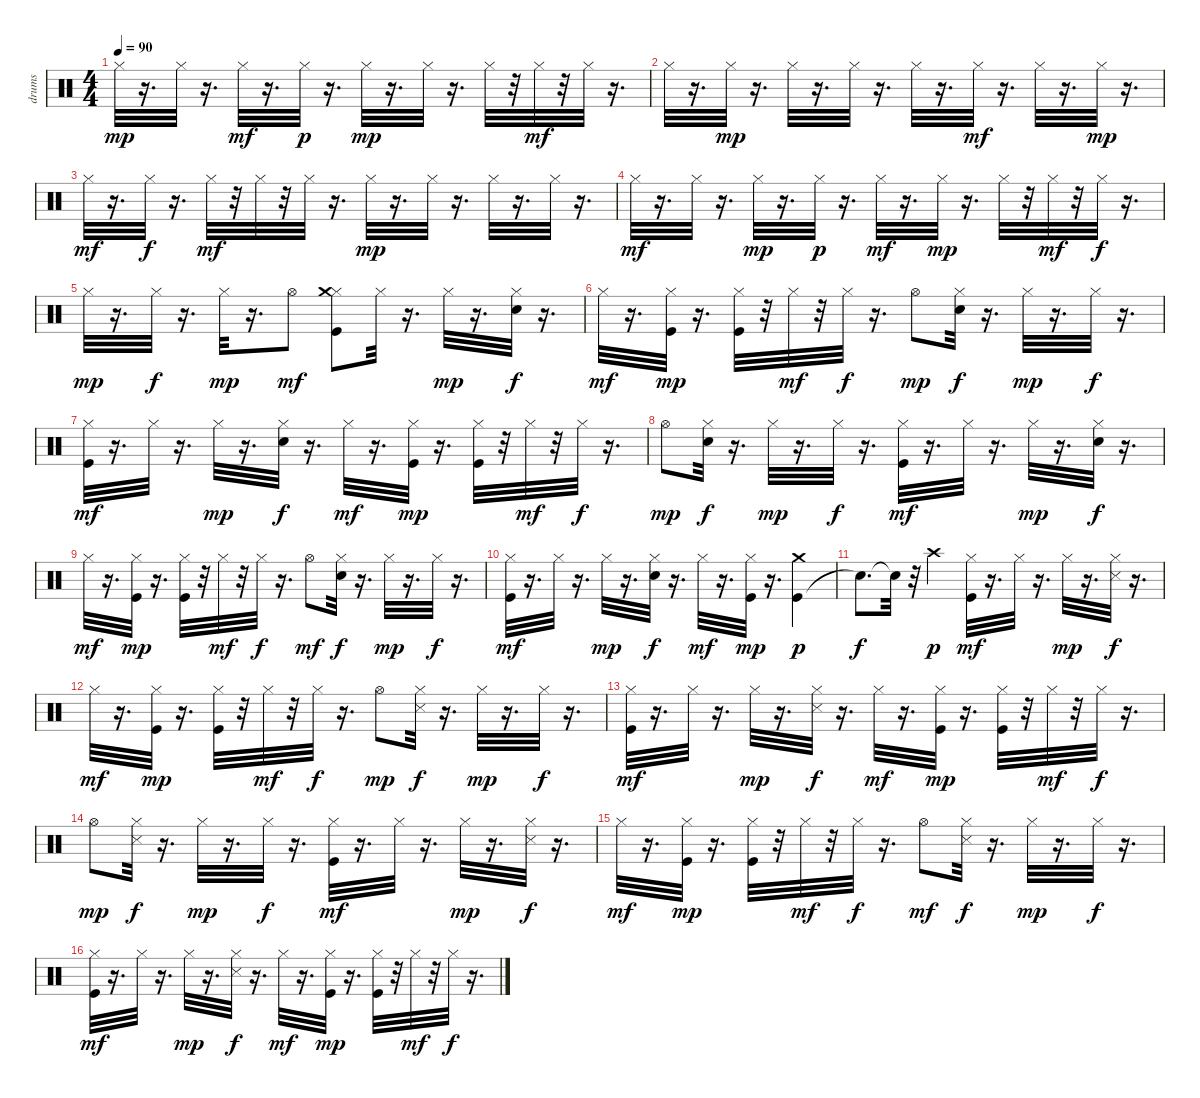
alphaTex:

\track ("drums" "drums") {instrument percussion}
\staff {score}
\articulation defaults
\ts (4 4)
\tempo 90
\clef neutral
\ks c "Hi-Hat (closed)".32{dy mp}
r.16{d} "Hi-Hat (closed)".32 r.16{d} "Hi-Hat (closed)".32{dy mf} r.16{d} "Hi-Hat (closed)".32{dy p} r.16{d} "Hi-Hat (closed)".32{dy mp} r.16{d} "Hi-Hat (closed)".32 r.16{d} "Hi-Hat (closed)".32 r.32 "Hi-Hat (closed)".32{dy mf} r.32 "Hi-Hat (closed)".32 r.16{d} |
"Hi-Hat (closed)".32 r.16{d} "Hi-Hat (closed)".32{dy mp} r.16{d} "Hi-Hat (closed)".32 r.16{d} "Hi-Hat (closed)".32 r.16{d} "Hi-Hat (closed)".32 r.16{d} "Hi-Hat (closed)".32{dy mf} r.16{d} "Hi-Hat (closed)".32 r.16{d} "Hi-Hat (closed)".32{dy mp} r.16{d} |
"Hi-Hat (closed)".32{dy mf} r.16{d} "Hi-Hat (closed)".32{dy f} r.16{d} "Hi-Hat (closed)".32{dy mf} r.32 "Hi-Hat (closed)".32 r.32 "Hi-Hat (closed)".32 r.16{d} "Hi-Hat (closed)".32{dy mp} r.16{d} "Hi-Hat (closed)".32 r.16{d} "Hi-Hat (closed)".32 r.16{d} "Hi-Hat (closed)".32 r.16{d} |
"Hi-Hat (closed)".32{dy mf} r.16{d} "Hi-Hat (closed)".32 r.16{d} "Hi-Hat (closed)".32{dy mp} r.16{d} "Hi-Hat (closed)".32{dy p} r.16{d} "Hi-Hat (closed)".32{dy mf} r.16{d} "Hi-Hat (closed)".32{dy mp} r.16{d} "Hi-Hat (closed)".32 r.32 "Hi-Hat (closed)".32{dy mf} r.32 "Hi-Hat (closed)".32{dy f} r.16{d} |
"Hi-Hat (closed)".32{dy mp} r.16{d} "Hi-Hat (closed)".32{dy f} r.16{d} "Hi-Hat (closed)".32{dy mp} r.16{d} "Hi-Hat (open)".8{dy mf} ("Kick (hit)" "Hi-Hat (closed)" "Crash medium (hit)").8 "Hi-Hat (closed)".32 r.16{d} "Hi-Hat (closed)".32{dy mp} r.16{d} ("Snare (hit) 2" "Hi-Hat (closed)").32{dy f} r.16{d} |
"Hi-Hat (closed)".32{dy mf} r.16{d} ("Kick (hit)" "Hi-Hat (closed)").32{dy mp} r.16{d} ("Kick (hit)" "Hi-Hat (closed)").32 r.32 "Hi-Hat (closed)".32{dy mf} r.32 "Hi-Hat (closed)".32{dy f} r.16{d} "Hi-Hat (open)".8{dy mp} ("Snare (hit) 2" "Hi-Hat (closed)").32{dy f} r.16{d} "Hi-Hat (closed)".32{dy mp} r.16{d} "Hi-Hat (closed)".32{dy f} r.16{d} |
("Kick (hit)" "Hi-Hat (closed)").32{dy mf} r.16{d} "Hi-Hat (closed)".32 r.16{d} "Hi-Hat (closed)".32{dy mp} r.16{d} ("Snare (hit) 2" "Hi-Hat (closed)").32{dy f} r.16{d} "Hi-Hat (closed)".32{dy mf} r.16{d} ("Kick (hit)" "Hi-Hat (closed)").32{dy mp} r.16{d} ("Kick (hit)" "Hi-Hat (closed)").32 r.32 "Hi-Hat (closed)".32{dy mf} r.32 "Hi-Hat (closed)".32{dy f} r.16{d} |
"Hi-Hat (open)".8{dy mp} ("Snare (hit) 2" "Hi-Hat (closed)").32{dy f} r.16{d} "Hi-Hat (closed)".32{dy mp} r.16{d} "Hi-Hat (closed)".32{dy f} r.16{d} ("Kick (hit)" "Hi-Hat (closed)").32{dy mf} r.16{d} "Hi-Hat (closed)".32 r.16{d} "Hi-Hat (closed)".32{dy mp} r.16{d} ("Snare (hit) 2" "Hi-Hat (closed)").32{dy f} r.16{d} |
"Hi-Hat (closed)".32{dy mf} r.16{d} ("Kick (hit)" "Hi-Hat (closed)").32{dy mp} r.16{d} ("Kick (hit)" "Hi-Hat (closed)").32 r.32 "Hi-Hat (closed)".32{dy mf} r.32 "Hi-Hat (closed)".32{dy f} r.16{d} "Hi-Hat (open)".8{dy mf} ("Snare (hit) 2" "Hi-Hat (closed)").32{dy f} r.16{d} "Hi-Hat (closed)".32{dy mp} r.16{d} "Hi-Hat (closed)".32{dy f} r.16{d} |
("Kick (hit)" "Hi-Hat (closed)").32{dy mf} r.16{d} "Hi-Hat (closed)".32 r.16{d} "Hi-Hat (closed)".32{dy mp} r.16{d} ("Snare (hit) 2" "Hi-Hat (closed)").32{dy f} r.16{d} "Hi-Hat (closed)".32{dy mf} r.16{d} ("Kick (hit)" "Hi-Hat (closed)").32{dy mp} r.16{d} ("Kick (hit)" "Crash medium (hit)").4{dy p} |
"Snare (hit)"{t}.8{d dy f} "Snare (hit)"{t}.32 r.32 "Crash high (hit)".4{dy p} ("Kick (hit)" "Hi-Hat (closed)").32{dy mf} r.16{d} "Hi-Hat (closed)".32 r.16{d} "Hi-Hat (closed)".32{dy mp} r.16{d} ("Snare (side stick) 3" "Hi-Hat (closed)").32{dy f} r.16{d} |
"Hi-Hat (closed)".32{dy mf} r.16{d} ("Kick (hit)" "Hi-Hat (closed)").32{dy mp} r.16{d} ("Kick (hit)" "Hi-Hat (closed)").32 r.32 "Hi-Hat (closed)".32{dy mf} r.32 "Hi-Hat (closed)".32{dy f} r.16{d} "Hi-Hat (open)".8{dy mp} ("Snare (side stick) 3" "Hi-Hat (closed)").32{dy f} r.16{d} "Hi-Hat (closed)".32{dy mp} r.16{d} "Hi-Hat (closed)".32{dy f} r.16{d} |
("Kick (hit)" "Hi-Hat (closed)").32{dy mf} r.16{d} "Hi-Hat (closed)".32 r.16{d} "Hi-Hat (closed)".32{dy mp} r.16{d} ("Snare (side stick) 3" "Hi-Hat (closed)").32{dy f} r.16{d} "Hi-Hat (closed)".32{dy mf} r.16{d} ("Kick (hit)" "Hi-Hat (closed)").32{dy mp} r.16{d} ("Kick (hit)" "Hi-Hat (closed)").32 r.32 "Hi-Hat (closed)".32{dy mf} r.32 "Hi-Hat (closed)".32{dy f} r.16{d} |
"Hi-Hat (open)".8{dy mp} ("Snare (side stick) 3" "Hi-Hat (closed)").32{dy f} r.16{d} "Hi-Hat (closed)".32{dy mp} r.16{d} "Hi-Hat (closed)".32{dy f} r.16{d} ("Kick (hit)" "Hi-Hat (closed)").32{dy mf} r.16{d} "Hi-Hat (closed)".32 r.16{d} "Hi-Hat (closed)".32{dy mp} r.16{d} ("Snare (side stick) 3" "Hi-Hat (closed)").32{dy f} r.16{d} |
"Hi-Hat (closed)".32{dy mf} r.16{d} ("Kick (hit)" "Hi-Hat (closed)").32{dy mp} r.16{d} ("Kick (hit)" "Hi-Hat (closed)").32 r.32 "Hi-Hat (closed)".32{dy mf} r.32 "Hi-Hat (closed)".32{dy f} r.16{d} "Hi-Hat (open)".8{dy mf} ("Snare (side stick) 3" "Hi-Hat (closed)").32{dy f} r.16{d} "Hi-Hat (closed)".32{dy mp} r.16{d} "Hi-Hat (closed)".32{dy f} r.16{d} |
("Kick (hit)" "Hi-Hat (closed)").32{dy mf} r.16{d} "Hi-Hat (closed)".32 r.16{d} "Hi-Hat (closed)".32{dy mp} r.16{d} ("Snare (side stick) 3" "Hi-Hat (closed)").32{dy f} r.16{d} "Hi-Hat (closed)".32{dy mf} r.16{d} ("Kick (hit)" "Hi-Hat (closed)").32{dy mp} r.16{d} ("Kick (hit)" "Hi-Hat (closed)").32 r.32 "Hi-Hat (closed)".32{dy mf} r.32 "Hi-Hat (closed)".32{dy f} r.16{d}
